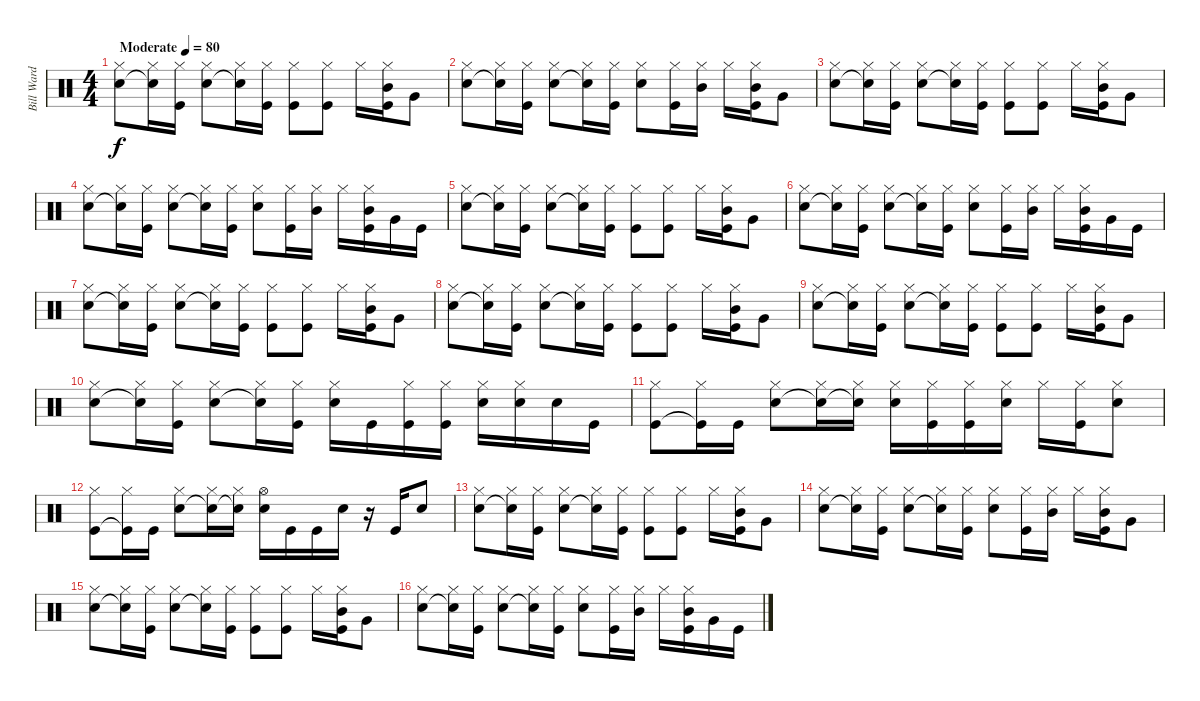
\track ("Bill Ward" "Bill Ward") {instrument percussion}
\staff {score}
\articulation defaults
\ts (4 4)
\tempo (80 "Moderate")
\clef neutral
\ks c
("Hi-Hat (closed)" "Snare (hit) 2").8{dy f} ("Hi-Hat (closed)" "Snare (hit) 2"{t}).16 ("Hi-Hat (closed)" "Kick (hit)").16 ("Hi-Hat (closed)" "Snare (hit) 2").8 ("Hi-Hat (closed)" "Snare (hit) 2"{t}).16 ("Hi-Hat (closed)" "Kick (hit)").16 ("Hi-Hat (closed)" "Kick (hit)").8 ("Hi-Hat (closed)" "Kick (hit)").8 "Hi-Hat (closed)".16 ("Mid Tom (hit)" "Hi-Hat (closed)" "Kick (hit)").16 "Very Low Tom (hit)".8 |
("Hi-Hat (closed)" "Snare (hit) 2").8 ("Hi-Hat (closed)" "Snare (hit) 2"{t}).16 ("Hi-Hat (closed)" "Kick (hit)").16 ("Hi-Hat (closed)" "Snare (hit) 2").8 ("Hi-Hat (closed)" "Snare (hit) 2"{t}).16 ("Hi-Hat (closed)" "Kick (hit)").16 ("Hi-Hat (closed)" "Snare (hit) 2").8 ("Hi-Hat (closed)" "Kick (hit)").16 ("Hi-Hat (closed)" "Mid Tom (hit)").16 "Hi-Hat (closed)".16 ("Mid Tom (hit)" "Hi-Hat (closed)" "Kick (hit)").16 "Very Low Tom (hit)".8 |
("Hi-Hat (closed)" "Snare (hit) 2").8 ("Hi-Hat (closed)" "Snare (hit) 2"{t}).16 ("Hi-Hat (closed)" "Kick (hit)").16 ("Hi-Hat (closed)" "Snare (hit) 2").8 ("Hi-Hat (closed)" "Snare (hit) 2"{t}).16 ("Hi-Hat (closed)" "Kick (hit)").16 ("Hi-Hat (closed)" "Kick (hit)").8 ("Hi-Hat (closed)" "Kick (hit)").8 "Hi-Hat (closed)".16 ("Mid Tom (hit)" "Hi-Hat (closed)" "Kick (hit)").16 "Very Low Tom (hit)".8 |
("Hi-Hat (closed)" "Snare (hit) 2").8 ("Hi-Hat (closed)" "Snare (hit) 2"{t}).16 ("Hi-Hat (closed)" "Kick (hit)").16 ("Hi-Hat (closed)" "Snare (hit) 2").8 ("Hi-Hat (closed)" "Snare (hit) 2"{t}).16 ("Hi-Hat (closed)" "Kick (hit)").16 ("Hi-Hat (closed)" "Snare (hit) 2").8 ("Hi-Hat (closed)" "Kick (hit)").16 ("Hi-Hat (closed)" "Mid Tom (hit)").16 "Hi-Hat (closed)".16 ("Mid Tom (hit)" "Hi-Hat (closed)" "Kick (hit)").16 "Very Low Tom (hit)".16 "Kick (hit)".16 |
("Hi-Hat (closed)" "Snare (hit) 2").8 ("Hi-Hat (closed)" "Snare (hit) 2"{t}).16 ("Hi-Hat (closed)" "Kick (hit)").16 ("Hi-Hat (closed)" "Snare (hit) 2").8 ("Hi-Hat (closed)" "Snare (hit) 2"{t}).16 ("Hi-Hat (closed)" "Kick (hit)").16 ("Hi-Hat (closed)" "Kick (hit)").8 ("Hi-Hat (closed)" "Kick (hit)").8 "Hi-Hat (closed)".16 ("Mid Tom (hit)" "Hi-Hat (closed)" "Kick (hit)").16 "Very Low Tom (hit)".8 |
("Hi-Hat (closed)" "Snare (hit) 2").8 ("Hi-Hat (closed)" "Snare (hit) 2"{t}).16 ("Hi-Hat (closed)" "Kick (hit)").16 ("Hi-Hat (closed)" "Snare (hit) 2").8 ("Hi-Hat (closed)" "Snare (hit) 2"{t}).16 ("Hi-Hat (closed)" "Kick (hit)").16 ("Hi-Hat (closed)" "Snare (hit) 2").8 ("Hi-Hat (closed)" "Kick (hit)").16 ("Hi-Hat (closed)" "Mid Tom (hit)").16 "Hi-Hat (closed)".16 ("Mid Tom (hit)" "Hi-Hat (closed)" "Kick (hit)").16 "Very Low Tom (hit)".16 "Kick (hit)".16 |
("Hi-Hat (closed)" "Snare (hit) 2").8 ("Hi-Hat (closed)" "Snare (hit) 2"{t}).16 ("Hi-Hat (closed)" "Kick (hit)").16 ("Hi-Hat (closed)" "Snare (hit) 2").8 ("Hi-Hat (closed)" "Snare (hit) 2"{t}).16 ("Hi-Hat (closed)" "Kick (hit)").16 ("Hi-Hat (closed)" "Kick (hit)").8 ("Hi-Hat (closed)" "Kick (hit)").8 "Hi-Hat (closed)".16 ("Mid Tom (hit)" "Hi-Hat (closed)" "Kick (hit)").16 "Very Low Tom (hit)".8 |
("Hi-Hat (closed)" "Snare (hit) 2").8 ("Hi-Hat (closed)" "Snare (hit) 2"{t}).16 ("Hi-Hat (closed)" "Kick (hit)").16 ("Hi-Hat (closed)" "Snare (hit) 2").8 ("Hi-Hat (closed)" "Snare (hit) 2"{t}).16 ("Hi-Hat (closed)" "Kick (hit)").16 ("Hi-Hat (closed)" "Kick (hit)").8 ("Hi-Hat (closed)" "Kick (hit)").8 "Hi-Hat (closed)".16 ("Mid Tom (hit)" "Hi-Hat (closed)" "Kick (hit)").16 "Very Low Tom (hit)".8 |
("Hi-Hat (closed)" "Snare (hit) 2").8 ("Hi-Hat (closed)" "Snare (hit) 2"{t}).16 ("Hi-Hat (closed)" "Kick (hit)").16 ("Hi-Hat (closed)" "Snare (hit) 2").8 ("Hi-Hat (closed)" "Snare (hit) 2"{t}).16 ("Hi-Hat (closed)" "Kick (hit)").16 ("Hi-Hat (closed)" "Kick (hit)").8 ("Hi-Hat (closed)" "Kick (hit)").8 "Hi-Hat (closed)".16 ("Mid Tom (hit)" "Hi-Hat (closed)" "Kick (hit)").16 "Very Low Tom (hit)".8 |
("Hi-Hat (closed)" "Snare (hit) 2").8 ("Hi-Hat (closed)" "Snare (hit) 2"{t}).16 ("Hi-Hat (closed)" "Kick (hit)").16 ("Hi-Hat (closed)" "Snare (hit) 2").8 ("Hi-Hat (closed)" "Snare (hit) 2"{t}).16 ("Hi-Hat (closed)" "Kick (hit)").16 ("Hi-Hat (closed)" "Snare (hit) 2").16 "Kick (hit)".16 ("Hi-Hat (closed)" "Kick (hit)").16 ("Hi-Hat (closed)" "Kick (hit)").16 ("Hi-Hat (closed)" "Snare (hit) 2").16 ("Hi-Hat (closed)" "Snare (hit) 2").16 "Snare (hit) 2".16 "Kick (hit)".16 |
("Hi-Hat (closed)" "Kick (hit)").8 ("Hi-Hat (closed)" "Kick (hit)"{t}).16 "Kick (hit)".16 ("Hi-Hat (closed)" "Snare (hit) 2").8 ("Hi-Hat (closed)" "Snare (hit) 2"{t}).16 ("Hi-Hat (closed)" "Snare (hit) 2"{t}).16 ("Hi-Hat (closed)" "Snare (hit) 2").16 ("Hi-Hat (closed)" "Kick (hit)").16 ("Hi-Hat (closed)" "Kick (hit)").16 ("Hi-Hat (closed)" "Snare (hit) 2").16 "Hi-Hat (closed)".16 ("Hi-Hat (closed)" "Kick (hit)").16 ("Hi-Hat (closed)" "Snare (hit) 2").8 |
("Hi-Hat (closed)" "Kick (hit)").8 ("Hi-Hat (closed)" "Kick (hit)"{t}).16 "Kick (hit)".16 ("Hi-Hat (closed)" "Snare (hit) 2").8 ("Hi-Hat (closed)" "Snare (hit) 2"{t}).16 ("Hi-Hat (closed)" "Snare (hit) 2"{t}).16 ("Hi-Hat (open)" "Snare (hit) 2").16 "Kick (hit)".16 "Kick (hit)".16 "Snare (hit) 2".16 r.16 "Kick (hit)".16 "Snare (hit) 2".8 |
("Hi-Hat (closed)" "Snare (hit) 2").8 ("Hi-Hat (closed)" "Snare (hit) 2"{t}).16 ("Hi-Hat (closed)" "Kick (hit)").16 ("Hi-Hat (closed)" "Snare (hit) 2").8 ("Hi-Hat (closed)" "Snare (hit) 2"{t}).16 ("Hi-Hat (closed)" "Kick (hit)").16 ("Hi-Hat (closed)" "Kick (hit)").8 ("Hi-Hat (closed)" "Kick (hit)").8 "Hi-Hat (closed)".16 ("Mid Tom (hit)" "Hi-Hat (closed)" "Kick (hit)").16 "Very Low Tom (hit)".8 |
("Hi-Hat (closed)" "Snare (hit) 2").8 ("Hi-Hat (closed)" "Snare (hit) 2"{t}).16 ("Hi-Hat (closed)" "Kick (hit)").16 ("Hi-Hat (closed)" "Snare (hit) 2").8 ("Hi-Hat (closed)" "Snare (hit) 2"{t}).16 ("Hi-Hat (closed)" "Kick (hit)").16 ("Hi-Hat (closed)" "Snare (hit) 2").8 ("Hi-Hat (closed)" "Kick (hit)").16 ("Hi-Hat (closed)" "Mid Tom (hit)").16 "Hi-Hat (closed)".16 ("Mid Tom (hit)" "Hi-Hat (closed)" "Kick (hit)").16 "Very Low Tom (hit)".8 |
("Hi-Hat (closed)" "Snare (hit) 2").8 ("Hi-Hat (closed)" "Snare (hit) 2"{t}).16 ("Hi-Hat (closed)" "Kick (hit)").16 ("Hi-Hat (closed)" "Snare (hit) 2").8 ("Hi-Hat (closed)" "Snare (hit) 2"{t}).16 ("Hi-Hat (closed)" "Kick (hit)").16 ("Hi-Hat (closed)" "Kick (hit)").8 ("Hi-Hat (closed)" "Kick (hit)").8 "Hi-Hat (closed)".16 ("Mid Tom (hit)" "Hi-Hat (closed)" "Kick (hit)").16 "Very Low Tom (hit)".8 |
("Hi-Hat (closed)" "Snare (hit) 2").8 ("Hi-Hat (closed)" "Snare (hit) 2"{t}).16 ("Hi-Hat (closed)" "Kick (hit)").16 ("Hi-Hat (closed)" "Snare (hit) 2").8 ("Hi-Hat (closed)" "Snare (hit) 2"{t}).16 ("Hi-Hat (closed)" "Kick (hit)").16 ("Hi-Hat (closed)" "Snare (hit) 2").8 ("Hi-Hat (closed)" "Kick (hit)").16 ("Hi-Hat (closed)" "Mid Tom (hit)").16 "Hi-Hat (closed)".16 ("Mid Tom (hit)" "Hi-Hat (closed)" "Kick (hit)").16 "Very Low Tom (hit)".16 "Kick (hit)".16
